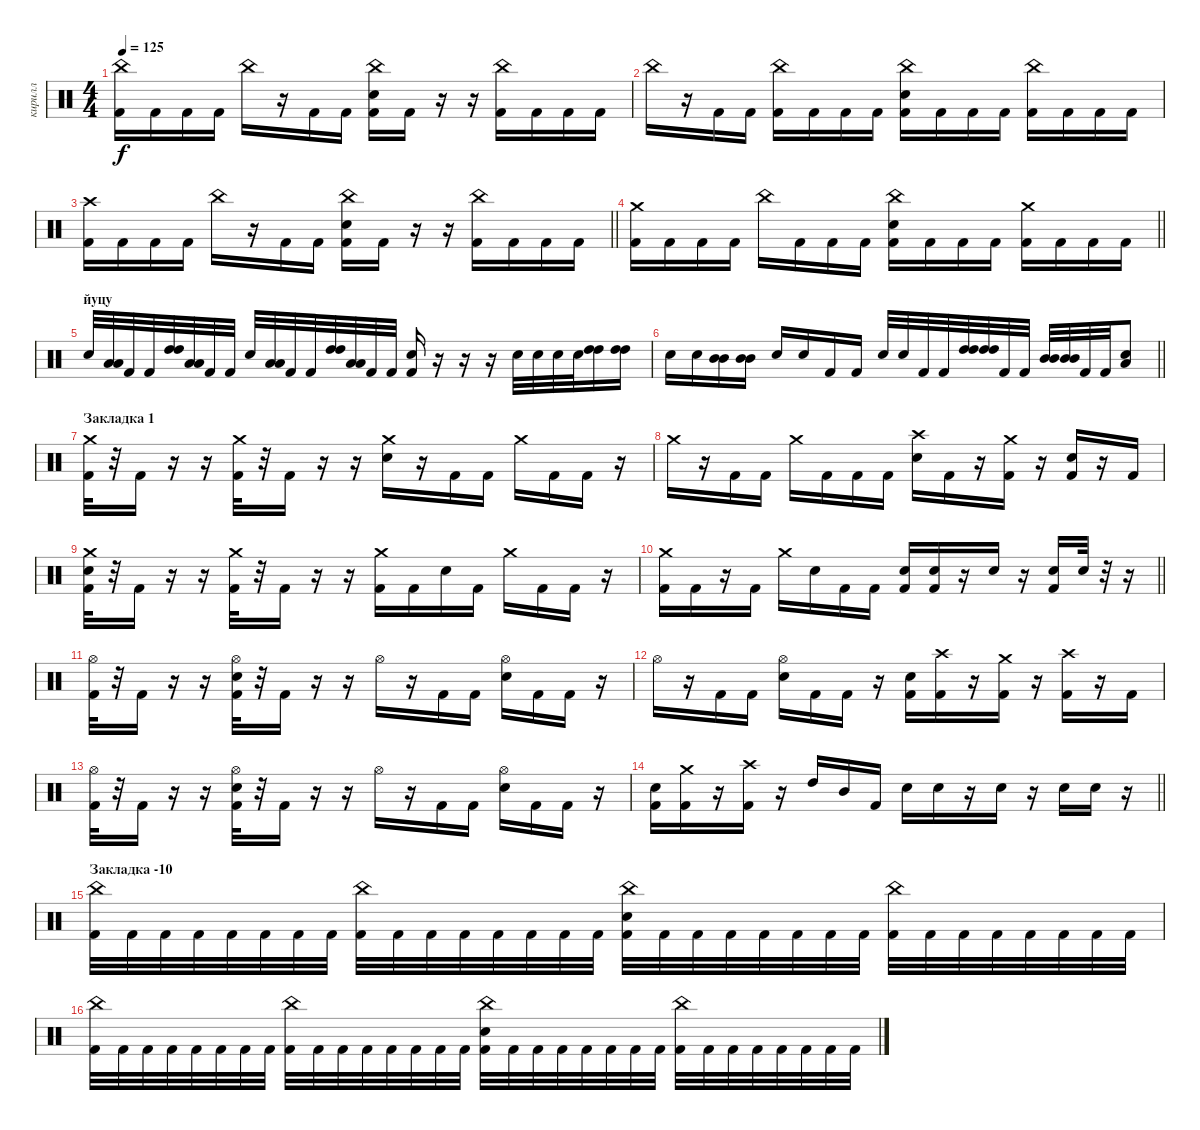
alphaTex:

\track ("кирилл" "кирилл") {instrument percussion}
\staff {score}
\articulation defaults
\ts (4 4)
\tempo 125
\clef neutral
\ks c
("China (hit)" "Kick (hit) 2").16{dy f} "Kick (hit) 2".16 "Kick (hit) 2".16 "Kick (hit) 2".16 "China (hit)".16 r.16 "Kick (hit) 2".16 "Kick (hit) 2".16 ("China (hit)" "Electric Snare (hit)" "Kick (hit) 2").16 "Kick (hit) 2".16 r.16 r.16 ("China (hit)" "Kick (hit) 2").16 "Kick (hit) 2".16 "Kick (hit) 2".16 "Kick (hit) 2".16 |
"China (hit)".16 r.16 "Kick (hit) 2".16 "Kick (hit) 2".16 ("China (hit)" "Kick (hit) 2").16 "Kick (hit) 2".16 "Kick (hit) 2".16 "Kick (hit) 2".16 ("China (hit)" "Electric Snare (hit)" "Kick (hit) 2").16 "Kick (hit) 2".16 "Kick (hit) 2".16 "Kick (hit) 2".16 ("China (hit)" "Kick (hit) 2").16 "Kick (hit) 2".16 "Kick (hit) 2".16 "Kick (hit) 2".16 |
\barLineRight lightlight
("Crash high (hit)" "Kick (hit) 2").16 "Kick (hit) 2".16 "Kick (hit) 2".16 "Kick (hit) 2".16 "China (hit)".16 r.16 "Kick (hit) 2".16 "Kick (hit) 2".16 ("China (hit)" "Electric Snare (hit)" "Kick (hit) 2").16 "Kick (hit) 2".16 r.16 r.16 ("China (hit)" "Kick (hit) 2").16 "Kick (hit) 2".16 "Kick (hit) 2".16 "Kick (hit) 2".16 |
\barLineRight lightlight
("Crash medium (hit)" "Kick (hit) 2").16 "Kick (hit) 2".16 "Kick (hit) 2".16 "Kick (hit) 2".16 "China (hit)".16 "Kick (hit) 2".16 "Kick (hit) 2".16 "Kick (hit) 2".16 ("China (hit)" "Electric Snare (hit)" "Kick (hit) 2").16 "Kick (hit) 2".16 "Kick (hit) 2".16 "Kick (hit) 2".16 ("Crash medium (hit)" "Kick (hit) 2").16 "Kick (hit) 2".16 "Kick (hit) 2".16 "Kick (hit) 2".16 |
\section ("" "йуцу")
"Electric Snare (hit)".32 ("Low Tom (hit)" "Low Tom (hit)").32 "Kick (hit) 2".32 "Kick (hit) 2".32 ("High Tom (hit)" "High Tom (hit)").32 ("Low Tom (hit)" "Low Tom (hit)").32 "Kick (hit) 2".32 "Kick (hit) 2".32 "Electric Snare (hit)".32 ("Low Tom (hit)" "Low Tom (hit)").32 "Kick (hit) 2".32 "Kick (hit) 2".32 ("High Tom (hit)" "High Tom (hit)").32 ("Low Tom (hit)" "Low Tom (hit)").32 "Kick (hit) 2".32 "Kick (hit) 2".32 ("Electric Snare (hit)" "Kick (hit) 2").16 r.16 r.16 r.16 "Electric Snare (hit)".32 "Electric Snare (hit)".32 "Electric Snare (hit)".32 "Electric Snare (hit)".32 ("High Tom (hit)" "High Tom (hit)").16 ("High Tom (hit)" "High Tom (hit)").16 |
\barLineRight lightlight "Electric Snare (hit)".16 "Electric Snare (hit)".16
("Mid Tom (hit)" "Mid Tom (hit)").16 ("Mid Tom (hit)" "Mid Tom (hit)").16 "Electric Snare (hit)".16 "Electric Snare (hit)".16 "Kick (hit) 2".16 "Kick (hit) 2".16 "Electric Snare (hit)".32 "Electric Snare (hit)".32 "Kick (hit) 2".32 "Kick (hit) 2".32 ("High Tom (hit)" "High Tom (hit)").32 ("High Tom (hit)" "High Tom (hit)").32 "Kick (hit) 2".32 "Kick (hit) 2".32 ("Mid Tom (hit)" "Mid Tom (hit)").32 ("Mid Tom (hit)" "Mid Tom (hit)").32 "Kick (hit) 2".32 "Kick (hit) 2".32 ("Low Tom (hit)" "Electric Snare (hit)").8 |
\section ("" "Закладка 1")
("Crash medium (hit)" "Kick (hit) 2").32 r.32 "Kick (hit) 2".16 r.16 r.16 ("Crash medium (hit)" "Kick (hit) 2").32 r.32 "Kick (hit) 2".16 r.16 r.16 ("Crash medium (hit)" "Electric Snare (hit)").16 r.16 "Kick (hit) 2".16 "Kick (hit) 2".16 "Crash medium (hit)".16 "Kick (hit) 2".16 "Kick (hit) 2".16 r.16 |
"Crash medium (hit)".16 r.16 "Kick (hit) 2".16 "Kick (hit) 2".16 "Crash medium (hit)".16 "Kick (hit) 2".16 "Kick (hit) 2".16 "Kick (hit) 2".16 ("Crash high (hit)" "Electric Snare (hit)").16 "Kick (hit) 2".16 r.16 ("Crash medium (hit)" "Kick (hit) 2").16 r.16 ("Electric Snare (hit)" "Kick (hit) 2").16 r.16 "Kick (hit) 2".16 |
("Crash medium (hit)" "Electric Snare (hit)" "Kick (hit) 2").32 r.32 "Kick (hit) 2".16 r.16 r.16 ("Crash medium (hit)" "Kick (hit) 2").32 r.32 "Kick (hit) 2".16 r.16 r.16 ("Crash medium (hit)" "Kick (hit) 2").16 "Kick (hit) 2".16 "Electric Snare (hit)".16 "Kick (hit) 2".16 "Crash medium (hit)".16 "Kick (hit) 2".16 "Kick (hit) 2".16 r.16 |
\barLineRight lightlight
("Crash medium (hit)" "Kick (hit) 2").16 "Kick (hit) 2".16 r.16 "Kick (hit) 2".16 "Crash medium (hit)".16 "Electric Snare (hit)".16 "Kick (hit) 2".16 "Kick (hit) 2".16 ("Electric Snare (hit)" "Kick (hit) 2").16 ("Electric Snare (hit)" "Kick (hit) 2").16 r.16 "Electric Snare (hit)".16 r.16 ("Electric Snare (hit)" "Kick (hit) 2").16 "Electric Snare (hit)".32 r.32 r.16 |
("Hi-Hat (open)" "Kick (hit) 2").32 r.32 "Kick (hit) 2".16 r.16 r.16 ("Hi-Hat (open)" "Electric Snare (hit)" "Kick (hit) 2").32 r.32 "Kick (hit) 2".16 r.16 r.16 "Hi-Hat (open)".16 r.16 "Kick (hit) 2".16 "Kick (hit) 2".16 ("Hi-Hat (open)" "Electric Snare (hit)").16 "Kick (hit) 2".16 "Kick (hit) 2".16 r.16 |
"Hi-Hat (open)".16 r.16 "Kick (hit) 2".16 "Kick (hit) 2".16 ("Hi-Hat (open)" "Electric Snare (hit)").16 "Kick (hit) 2".16 "Kick (hit) 2".16 r.16 ("Electric Snare (hit)" "Kick (hit) 2").16 ("Crash high (hit)" "Kick (hit) 2").16 r.16 ("Crash medium (hit)" "Kick (hit) 2").16 r.16 ("Crash high (hit)" "Kick (hit) 2").16 r.16 "Kick (hit) 2".16 |
("Hi-Hat (open)" "Kick (hit) 2").32 r.32 "Kick (hit) 2".16 r.16 r.16 ("Hi-Hat (open)" "Electric Snare (hit)" "Kick (hit) 2").32 r.32 "Kick (hit) 2".16 r.16 r.16 "Hi-Hat (open)".16 r.16 "Kick (hit) 2".16 "Kick (hit) 2".16 ("Hi-Hat (open)" "Electric Snare (hit)").16 "Kick (hit) 2".16 "Kick (hit) 2".16 r.16 |
\barLineRight lightlight
("Electric Snare (hit)" "Kick (hit) 2").16 ("Crash medium (hit)" "Kick (hit) 2").16 r.16 ("Crash high (hit)" "Kick (hit) 2").16 r.16 "High Tom (hit)".16 "Mid Tom (hit)".16 "Kick (hit) 2".16 "Electric Snare (hit)".16 "Electric Snare (hit)".16 r.16 "Electric Snare (hit)".16 r.16 "Electric Snare (hit)".16 "Electric Snare (hit)".16 r.16 |
\section ("" "Закладка -10")
("China (hit)" "Kick (hit) 2").32 "Kick (hit) 2".32 "Kick (hit) 2".32 "Kick (hit) 2".32 "Kick (hit) 2".32 "Kick (hit) 2".32 "Kick (hit) 2".32 "Kick (hit) 2".32 ("China (hit)" "Kick (hit) 2").32 "Kick (hit) 2".32 "Kick (hit) 2".32 "Kick (hit) 2".32 "Kick (hit) 2".32 "Kick (hit) 2".32 "Kick (hit) 2".32 "Kick (hit) 2".32 ("China (hit)" "Electric Snare (hit)" "Kick (hit) 2").32 "Kick (hit) 2".32 "Kick (hit) 2".32 "Kick (hit) 2".32 "Kick (hit) 2".32 "Kick (hit) 2".32 "Kick (hit) 2".32 "Kick (hit) 2".32 ("China (hit)" "Kick (hit) 2").32 "Kick (hit) 2".32 "Kick (hit) 2".32 "Kick (hit) 2".32 "Kick (hit) 2".32 "Kick (hit) 2".32 "Kick (hit) 2".32 "Kick (hit) 2".32 |
("China (hit)" "Kick (hit) 2").32 "Kick (hit) 2".32 "Kick (hit) 2".32 "Kick (hit) 2".32 "Kick (hit) 2".32 "Kick (hit) 2".32 "Kick (hit) 2".32 "Kick (hit) 2".32 ("China (hit)" "Kick (hit) 2").32 "Kick (hit) 2".32 "Kick (hit) 2".32 "Kick (hit) 2".32 "Kick (hit) 2".32 "Kick (hit) 2".32 "Kick (hit) 2".32 "Kick (hit) 2".32 ("China (hit)" "Electric Snare (hit)" "Kick (hit) 2").32 "Kick (hit) 2".32 "Kick (hit) 2".32 "Kick (hit) 2".32 "Kick (hit) 2".32 "Kick (hit) 2".32 "Kick (hit) 2".32 "Kick (hit) 2".32 ("China (hit)" "Kick (hit) 2").32 "Kick (hit) 2".32 "Kick (hit) 2".32 "Kick (hit) 2".32 "Kick (hit) 2".32 "Kick (hit) 2".32 "Kick (hit) 2".32 "Kick (hit) 2".32
